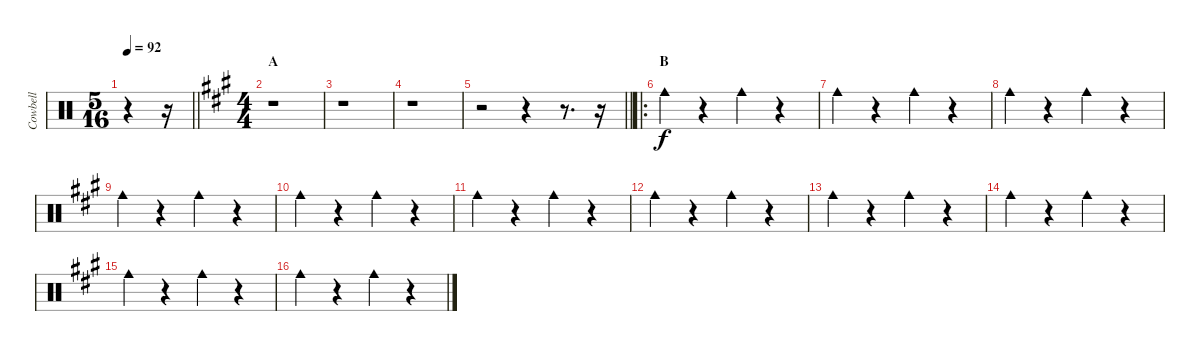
\track ("Cowbell" "Cowbell") {instrument percussion}
\staff {score}
\articulation defaults
\ts (5 16)
\tempo 92
\clef neutral
\barLineRight lightlight
\ks c
r.4{dy f} r.16 |
\ts (4 4)
\section ("" "A")
\ks a
r.1 |
r.1 |
r.1 |
\barLineRight lightlight
r.2 r.4 r.8{d} r.16 |
\ro
\section ("" "B")
"Cowbell medium (hit)".4 r.4 "Cowbell medium (hit)".4 r.4 |
"Cowbell medium (hit)".4 r.4 "Cowbell medium (hit)".4 r.4 |
"Cowbell medium (hit)".4 r.4 "Cowbell medium (hit)".4 r.4 |
"Cowbell medium (hit)".4 r.4 "Cowbell medium (hit)".4 r.4 |
"Cowbell medium (hit)".4 r.4 "Cowbell medium (hit)".4 r.4 |
"Cowbell medium (hit)".4 r.4 "Cowbell medium (hit)".4 r.4 |
"Cowbell medium (hit)".4 r.4 "Cowbell medium (hit)".4 r.4 |
"Cowbell medium (hit)".4 r.4 "Cowbell medium (hit)".4 r.4 |
"Cowbell medium (hit)".4 r.4 "Cowbell medium (hit)".4 r.4 |
"Cowbell medium (hit)".4 r.4 "Cowbell medium (hit)".4 r.4 |
"Cowbell medium (hit)".4 r.4 "Cowbell medium (hit)".4 r.4
